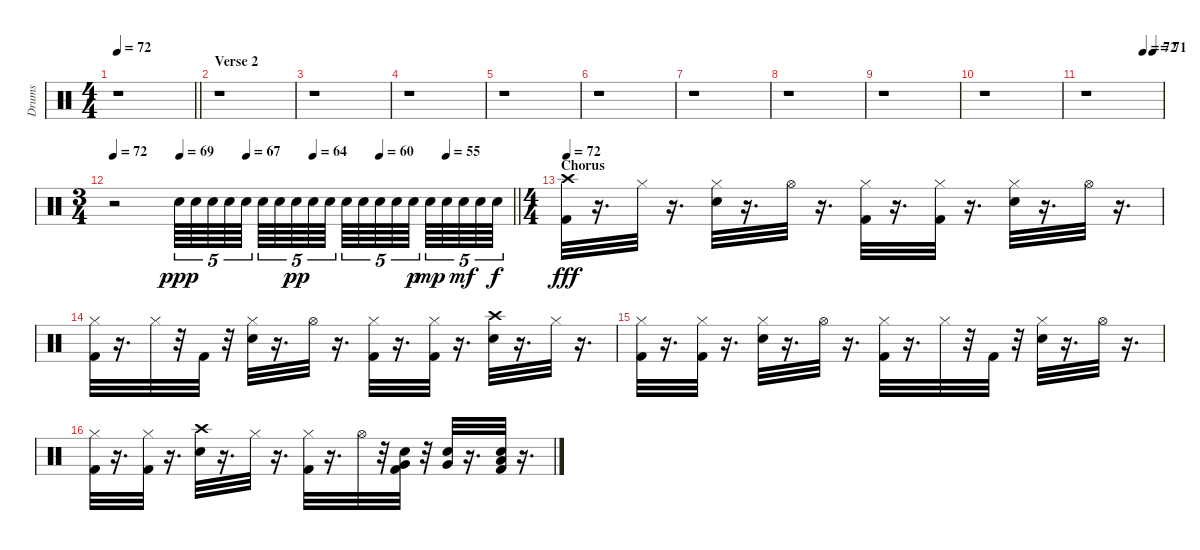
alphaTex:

\track ("Drums" "Drums") {instrument percussion}
\staff {score}
\articulation defaults
\ts (4 4)
\tempo 72
\clef neutral
\barLineRight lightlight
\ks c
r.1{dy ppp} |
\section ("" "Verse 2")
r.1 |
r.1 |
r.1 |
r.1 |
r.1 |
r.1 |
r.1 |
r.1 |
r.1 |
\tempo (72 0.75)
\tempo (71 0.875)
r.1 |
\ts (3 4)
\tempo 72
\tempo (69 0.16666666666666666)
\tempo (67 0.3333333333333333)
\tempo (64 0.5)
\tempo (60 0.6666666666666666)
\tempo (55 0.8333333333333334)
\barLineRight lightlight
r.2 "Electric Snare (hit)".64{tu (5 4) volume 14} "Electric Snare (hit)".64{tu (5 4)} "Electric Snare (hit)".64{tu (5 4)} "Electric Snare (hit)".64{tu (5 4)} "Electric Snare (hit)".64{tu (5 4) beam splitsecondary} "Electric Snare (hit)".64{tu (5 4)} "Electric Snare (hit)".64{tu (5 4)} "Electric Snare (hit)".64{tu (5 4) dy pp} "Electric Snare (hit)".64{tu (5 4)} "Electric Snare (hit)".64{tu (5 4) beam splitsecondary} "Electric Snare (hit)".64{tu (5 4)} "Electric Snare (hit)".64{tu (5 4)} "Electric Snare (hit)".64{tu (5 4)} "Electric Snare (hit)".64{tu (5 4)} "Electric Snare (hit)".64{tu (5 4) dy p beam splitsecondary} "Electric Snare (hit)".64{tu (5 4) dy mp} "Electric Snare (hit)".64{tu (5 4)} "Electric Snare (hit)".64{tu (5 4) dy mf} "Electric Snare (hit)".64{tu (5 4)} "Electric Snare (hit)".64{tu (5 4) dy f} |
\ts (4 4)
\section ("" "Chorus")
\tempo 72
("Kick (hit) 2" "Crash high (hit)").32{dy fff} r.16{d} "Hi-Hat (closed)".32 r.16{d} ("Hi-Hat (closed)" "Snare (hit) 2").32 r.16{d} "Hi-Hat (open)".32 r.16{d} ("Kick (hit) 2" "Hi-Hat (closed)").32 r.16{d} ("Kick (hit) 2" "Hi-Hat (closed)").32 r.16{d} ("Hi-Hat (closed)" "Snare (hit) 2").32 r.16{d} "Hi-Hat (open)".32 r.16{d} |
("Kick (hit) 2" "Hi-Hat (closed)").32 r.16{d} "Hi-Hat (closed)".32 r.32 "Kick (hit) 2".32 r.32 ("Hi-Hat (closed)" "Snare (hit) 2").32 r.16{d} "Hi-Hat (open)".32 r.16{d} ("Kick (hit) 2" "Hi-Hat (closed)").32 r.16{d} ("Kick (hit) 2" "Hi-Hat (closed)").32 r.16{d} ("Crash high (hit)" "Snare (hit) 2").32 r.16{d} "Hi-Hat (closed)".32 r.16{d} |
("Kick (hit) 2" "Hi-Hat (closed)").32 r.16{d} ("Kick (hit) 2" "Hi-Hat (closed)").32 r.16{d} ("Hi-Hat (closed)" "Snare (hit) 2").32 r.16{d} "Hi-Hat (open)".32 r.16{d} ("Kick (hit) 2" "Hi-Hat (closed)").32 r.16{d} "Hi-Hat (closed)".32 r.32 "Kick (hit) 2".32 r.32 ("Hi-Hat (closed)" "Snare (hit) 2").32 r.16{d} "Hi-Hat (open)".32 r.16{d} |
("Kick (hit) 2" "Hi-Hat (closed)").32 r.16{d} ("Kick (hit) 2" "Hi-Hat (closed)").32 r.16{d} ("Crash high (hit)" "Snare (hit) 2").32 r.16{d} "Hi-Hat (closed)".32 r.16{d} ("Kick (hit) 2" "Hi-Hat (closed)").32 r.16{d} "Hi-Hat (open)".32 r.32 ("Kick (hit) 2" "Snare (hit) 2" "Very Low Tom (hit)").32 r.32 ("Snare (hit) 2" "Very Low Tom (hit)").32 r.16{d} ("Kick (hit) 2" "Snare (hit) 2" "Low Floor Tom (hit)").32 r.16{d}
